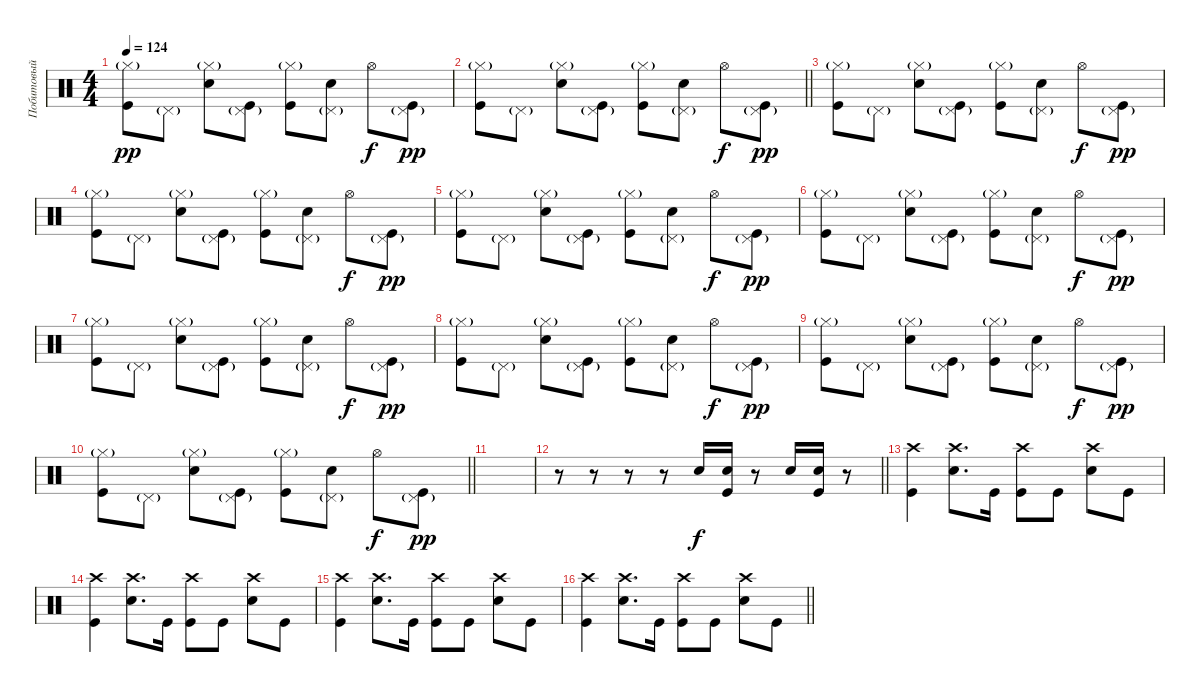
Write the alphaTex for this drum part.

\track ("Побитовый" "Побитовый") {instrument percussion}
\staff {score}
\articulation defaults
\ts (4 4)
\tempo 124
\clef neutral
\ks c
("Hi-Hat (closed)"{g} "Kick (hit)").8{dy pp} "Pedal Hi-Hat (hit)"{g}.8 ("Hi-Hat (closed)"{g} "Snare (hit) 2").8 ("Pedal Hi-Hat (hit)"{g} "Kick (hit)").8 ("Hi-Hat (closed)"{g} "Kick (hit)").8 ("Pedal Hi-Hat (hit)"{g} "Snare (hit) 2").8 "Hi-Hat (open)".8{dy f} ("Pedal Hi-Hat (hit)"{g} "Kick (hit)").8{dy pp} |
\barLineRight lightlight
("Hi-Hat (closed)"{g} "Kick (hit)").8 "Pedal Hi-Hat (hit)"{g}.8 ("Hi-Hat (closed)"{g} "Snare (hit) 2").8 ("Pedal Hi-Hat (hit)"{g} "Kick (hit)").8 ("Hi-Hat (closed)"{g} "Kick (hit)").8 ("Pedal Hi-Hat (hit)"{g} "Snare (hit) 2").8 "Hi-Hat (open)".8{dy f} ("Pedal Hi-Hat (hit)"{g} "Kick (hit)").8{dy pp} |
("Hi-Hat (closed)"{g} "Kick (hit)").8 "Pedal Hi-Hat (hit)"{g}.8 ("Hi-Hat (closed)"{g} "Snare (hit) 2").8 ("Pedal Hi-Hat (hit)"{g} "Kick (hit)").8 ("Hi-Hat (closed)"{g} "Kick (hit)").8 ("Pedal Hi-Hat (hit)"{g} "Snare (hit) 2").8 "Hi-Hat (open)".8{dy f} ("Pedal Hi-Hat (hit)"{g} "Kick (hit)").8{dy pp} |
("Hi-Hat (closed)"{g} "Kick (hit)").8 "Pedal Hi-Hat (hit)"{g}.8 ("Hi-Hat (closed)"{g} "Snare (hit) 2").8 ("Pedal Hi-Hat (hit)"{g} "Kick (hit)").8 ("Hi-Hat (closed)"{g} "Kick (hit)").8 ("Pedal Hi-Hat (hit)"{g} "Snare (hit) 2").8 "Hi-Hat (open)".8{dy f} ("Pedal Hi-Hat (hit)"{g} "Kick (hit)").8{dy pp} |
("Hi-Hat (closed)"{g} "Kick (hit)").8 "Pedal Hi-Hat (hit)"{g}.8 ("Hi-Hat (closed)"{g} "Snare (hit) 2").8 ("Pedal Hi-Hat (hit)"{g} "Kick (hit)").8 ("Hi-Hat (closed)"{g} "Kick (hit)").8 ("Pedal Hi-Hat (hit)"{g} "Snare (hit) 2").8 "Hi-Hat (open)".8{dy f} ("Pedal Hi-Hat (hit)"{g} "Kick (hit)").8{dy pp} |
("Hi-Hat (closed)"{g} "Kick (hit)").8 "Pedal Hi-Hat (hit)"{g}.8 ("Hi-Hat (closed)"{g} "Snare (hit) 2").8 ("Pedal Hi-Hat (hit)"{g} "Kick (hit)").8 ("Hi-Hat (closed)"{g} "Kick (hit)").8 ("Pedal Hi-Hat (hit)"{g} "Snare (hit) 2").8 "Hi-Hat (open)".8{dy f} ("Pedal Hi-Hat (hit)"{g} "Kick (hit)").8{dy pp} |
("Hi-Hat (closed)"{g} "Kick (hit)").8 "Pedal Hi-Hat (hit)"{g}.8 ("Hi-Hat (closed)"{g} "Snare (hit) 2").8 ("Pedal Hi-Hat (hit)"{g} "Kick (hit)").8 ("Hi-Hat (closed)"{g} "Kick (hit)").8 ("Pedal Hi-Hat (hit)"{g} "Snare (hit) 2").8 "Hi-Hat (open)".8{dy f} ("Pedal Hi-Hat (hit)"{g} "Kick (hit)").8{dy pp} |
("Hi-Hat (closed)"{g} "Kick (hit)").8 "Pedal Hi-Hat (hit)"{g}.8 ("Hi-Hat (closed)"{g} "Snare (hit) 2").8 ("Pedal Hi-Hat (hit)"{g} "Kick (hit)").8 ("Hi-Hat (closed)"{g} "Kick (hit)").8 ("Pedal Hi-Hat (hit)"{g} "Snare (hit) 2").8 "Hi-Hat (open)".8{dy f} ("Pedal Hi-Hat (hit)"{g} "Kick (hit)").8{dy pp} |
("Hi-Hat (closed)"{g} "Kick (hit)").8 "Pedal Hi-Hat (hit)"{g}.8 ("Hi-Hat (closed)"{g} "Snare (hit) 2").8 ("Pedal Hi-Hat (hit)"{g} "Kick (hit)").8 ("Hi-Hat (closed)"{g} "Kick (hit)").8 ("Pedal Hi-Hat (hit)"{g} "Snare (hit) 2").8 "Hi-Hat (open)".8{dy f} ("Pedal Hi-Hat (hit)"{g} "Kick (hit)").8{dy pp} |
\barLineRight lightlight
("Hi-Hat (closed)"{g} "Kick (hit)").8 "Pedal Hi-Hat (hit)"{g}.8 ("Hi-Hat (closed)"{g} "Snare (hit) 2").8 ("Pedal Hi-Hat (hit)"{g} "Kick (hit)").8 ("Hi-Hat (closed)"{g} "Kick (hit)").8 ("Pedal Hi-Hat (hit)"{g} "Snare (hit) 2").8 "Hi-Hat (open)".8{dy f} ("Pedal Hi-Hat (hit)"{g} "Kick (hit)").8{dy pp} |
|
\barLineRight lightlight
r.8 r.8 r.8 r.8 "Snare (hit) 2".16{dy f} ("Snare (hit) 2" "Kick (hit)").16 r.8 "Snare (hit) 2".16 ("Snare (hit) 2" "Kick (hit)").16 r.8 |
("Crash high (hit)" "Kick (hit)").4 ("Crash high (hit)" "Snare (hit) 2").8{d} "Kick (hit)".16 ("Crash high (hit)" "Kick (hit)").8 "Kick (hit)".8 ("Crash high (hit)" "Snare (hit) 2").8 "Kick (hit)".8 |
("Crash high (hit)" "Kick (hit)").4 ("Crash high (hit)" "Snare (hit) 2").8{d} "Kick (hit)".16 ("Crash high (hit)" "Kick (hit)").8 "Kick (hit)".8 ("Crash high (hit)" "Snare (hit) 2").8 "Kick (hit)".8 |
("Crash high (hit)" "Kick (hit)").4 ("Crash high (hit)" "Snare (hit) 2").8{d} "Kick (hit)".16 ("Crash high (hit)" "Kick (hit)").8 "Kick (hit)".8 ("Crash high (hit)" "Snare (hit) 2").8 "Kick (hit)".8 |
\barLineRight lightlight
("Crash high (hit)" "Kick (hit)").4 ("Crash high (hit)" "Snare (hit) 2").8{d} "Kick (hit)".16 ("Crash high (hit)" "Kick (hit)").8 "Kick (hit)".8 ("Crash high (hit)" "Snare (hit) 2").8 "Kick (hit)".8
